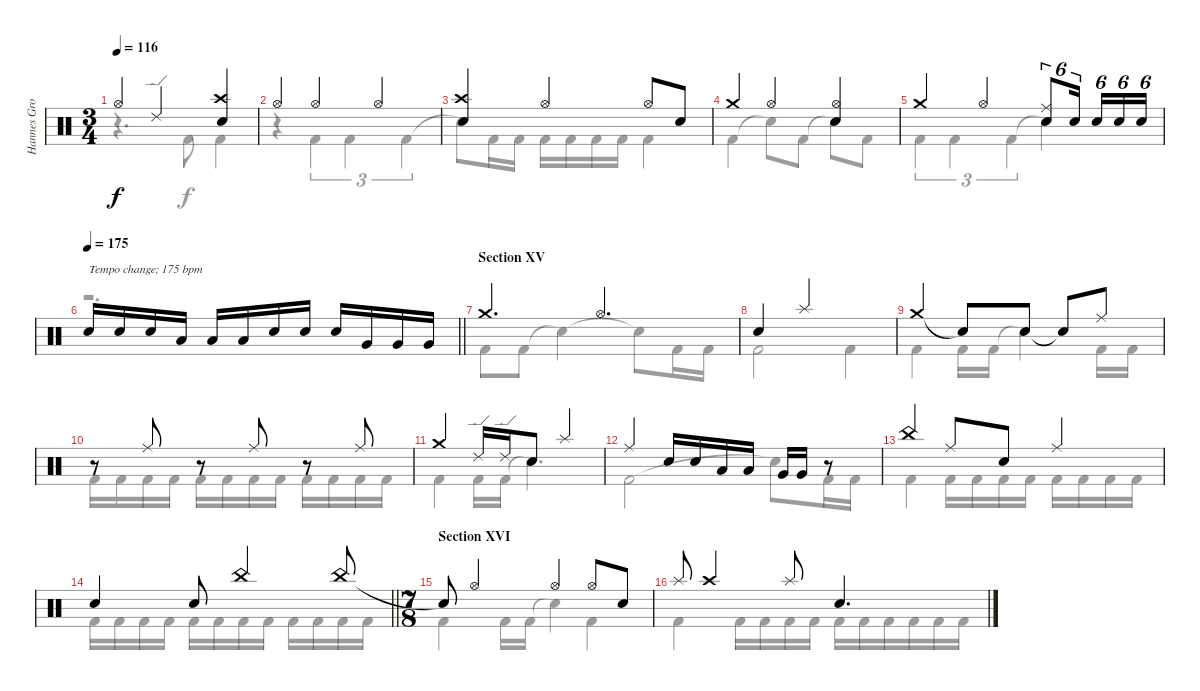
\track ("Hannes Grossman" "Hannes Gro") {instrument percussion}
\staff {score}
\articulation defaults
\voice
\ts (3 4)
\tempo 116
\clef neutral
\ks c "Hi-Hat (open)".4{dy f} "Ride (edge) 2".4
("Electric Snare (hit)" "Crash high (hit)").4 |
"Hi-Hat (open)".4 "Hi-Hat (open)".4 "Hi-Hat (open)".4 |
("Electric Snare (hit)" "Crash high (hit)").4 "Hi-Hat (open)".4 "Hi-Hat (open)".8 "Electric Snare (hit)".8 |
"Crash medium (hit)".4 "Hi-Hat (open)".4 ("Hi-Hat (open)" "Electric Snare (hit)").4 |
"Crash medium (hit)".4 "Hi-Hat (open)".4 ("Ride (middle)" "Electric Snare (hit)").8{tu (6 4)} "Electric Snare (hit)".16{tu (6 4)} "Electric Snare (hit)".16{tu (6 4)} "Electric Snare (hit)".16{tu (6 4)} "Electric Snare (hit)".16{tu (6 4)} |
\tempo 175
\barLineRight lightlight "Electric Snare (hit)".16{txt "Tempo change; 175 bpm"} "Electric Snare (hit)".16 "Electric Snare (hit)".16 "Low Tom (hit)".16 "Low Tom (hit)".16 "Low Tom (hit)".16 "Electric Snare (hit)".16 "Electric Snare (hit)".16 "Electric Snare (hit)".16 "Very Low Tom (hit)".16 "Very Low Tom (hit)".16 "Very Low Tom (hit)".16
|
\section ("" "Section XV")
"Crash medium (hit)".4{d} "Hi-Hat (open)".4{d} |
"Electric Snare (hit)".4 "Splash (hit)".2 |
"Crash medium (hit)".4 "Snare (hit)"{t}.8 "Electric Snare (hit)".8 "Snare (hit)"{t}.8 "Ride (middle)".8 |
r.8 "Ride (middle)".8 r.8 "Ride (middle)".8 r.8 "Ride (middle)".8 |
"Crash medium (hit)".4 "Ride (edge) 2".16 "Ride (edge) 2".16 "Electric Snare (hit)".8 "Splash (hit)".4 |
"Ride (middle)".4 "Electric Snare (hit)".16 "Electric Snare (hit)".16 "Low Tom (hit)".16 "Low Tom (hit)".16 "Very Low Tom (hit)".16 "Very Low Tom (hit)".16 r.8 |
"China (hit)".4 "Ride (middle)".8 "Electric Snare (hit)".8 "Ride (middle)".4 |
\barLineRight lightlight "Electric Snare (hit)".4 "Electric Snare (hit)".8 "China (hit)".4 "China (hit)".8
|
\ts (7 8)
\section ("" "Section XVI")
"Snare (hit)"{t}.8 "Hi-Hat (open)".4 "Hi-Hat (open)".4 "Hi-Hat (open)".8 "Electric Snare (hit)".8 |
"Splash (hit)".8 "Crash high (hit)".4 "Splash (hit)".8 "Electric Snare (hit)".4{d}
\voice
\clef neutral
\ottava regular
\simile none
\ks c
r.4{d dy f} "Kick (hit) 2".8 "Kick (hit) 2".4 |
r.4 "Kick (hit) 2".4{tu (3 2)} "Kick (hit) 2".4{tu (3 2)} "Kick (hit) 2".4{tu (3 2)} |
"Snare (hit)"{t}.8 "Kick (hit) 2".16 "Kick (hit) 2".16 "Kick (hit) 2".16 "Kick (hit) 2".16 "Kick (hit) 2".16 "Kick (hit) 2".16 "Kick (hit) 2".4 |
"Kick (hit) 2".4 "Snare (hit)"{t}.8 "Kick (hit) 2".8 "Snare (hit)"{t}.8 "Kick (hit) 2".8 |
"Kick (hit) 2".4{tu (3 2)} "Kick (hit) 2".4{tu (3 2)} "Kick (hit) 2".4{tu (3 2)} "Snare (hit)"{t}.4 |
\barLineRight lightlight
r.2{d} |
"Kick (hit) 2".8 "Kick (hit) 2".8 "Snare (hit)"{t}.4 "Snare (hit)"{t}.8 "Kick (hit) 2".16 "Kick (hit) 2".16 |
"Kick (hit) 2".2 "Kick (hit) 2".4 |
"Kick (hit) 2".4 "Kick (hit) 2".16 "Kick (hit) 2".16 "Snare (hit)"{t}.4 "Kick (hit) 2".16 "Kick (hit) 2".16 |
"Kick (hit) 2".16 "Kick (hit) 2".16 "Kick (hit) 2".16 "Kick (hit) 2".16 "Kick (hit) 2".16 "Kick (hit) 2".16 "Kick (hit) 2".16 "Kick (hit) 2".16 "Kick (hit) 2".16 "Kick (hit) 2".16 "Kick (hit) 2".16 "Kick (hit) 2".16 |
"Kick (hit) 2".4 "Kick (hit) 2".16 "Kick (hit) 2".16 "Snare (hit)"{t}.4{d} |
"Kick (hit) 2".2 "Snare (hit)"{t}.8 "Kick (hit) 2".16 "Kick (hit) 2".16 |
"Kick (hit) 2".4 "Kick (hit) 2".16 "Kick (hit) 2".16 "Kick (hit) 2".16 "Kick (hit) 2".16 "Kick (hit) 2".16 "Kick (hit) 2".16 "Kick (hit) 2".16 "Kick (hit) 2".16 |
\barLineRight lightlight "Kick (hit) 2".16 "Kick (hit) 2".16 "Kick (hit) 2".16 "Kick (hit) 2".16 "Kick (hit) 2".16 "Kick (hit) 2".16 "Kick (hit) 2".16 "Kick (hit) 2".16 "Kick (hit) 2".16 "Kick (hit) 2".16 "Kick (hit) 2".16 "Kick (hit) 2".16
|
"Kick (hit) 2".4 "Kick (hit) 2".16 "Kick (hit) 2".16 "Snare (hit)"{t}.4 "Kick (hit) 2".4 |
"Kick (hit) 2".4 "Kick (hit) 2".16 "Kick (hit) 2".16 "Kick (hit) 2".16 "Kick (hit) 2".16 "Kick (hit) 2".16 "Kick (hit) 2".16 "Kick (hit) 2".16 "Kick (hit) 2".16 "Kick (hit) 2".16 "Kick (hit) 2".16
